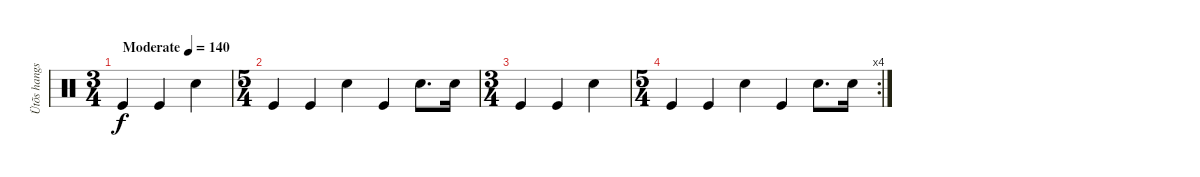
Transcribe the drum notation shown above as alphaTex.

\track ("Ütõs hangszer" "Ütõs hangs") {instrument percussion}
\staff {score}
\articulation defaults
\ts (3 4)
\tempo (140 "Moderate")
\clef neutral
\ks c "Kick (hit)".4{dy f} "Kick (hit)".4 "Snare (hit) 2".4
|
\ts (5 4)
"Kick (hit)".4 "Kick (hit)".4 "Snare (hit) 2".4 "Kick (hit)".4 "Snare (hit) 2".8{d} "Snare (hit) 2".16 |
\ts (3 4)
"Kick (hit)".4 "Kick (hit)".4 "Snare (hit) 2".4 |
\rc 4
\ts (5 4)
"Kick (hit)".4 "Kick (hit)".4 "Snare (hit) 2".4 "Kick (hit)".4 "Snare (hit) 2".8{d} "Snare (hit) 2".16
